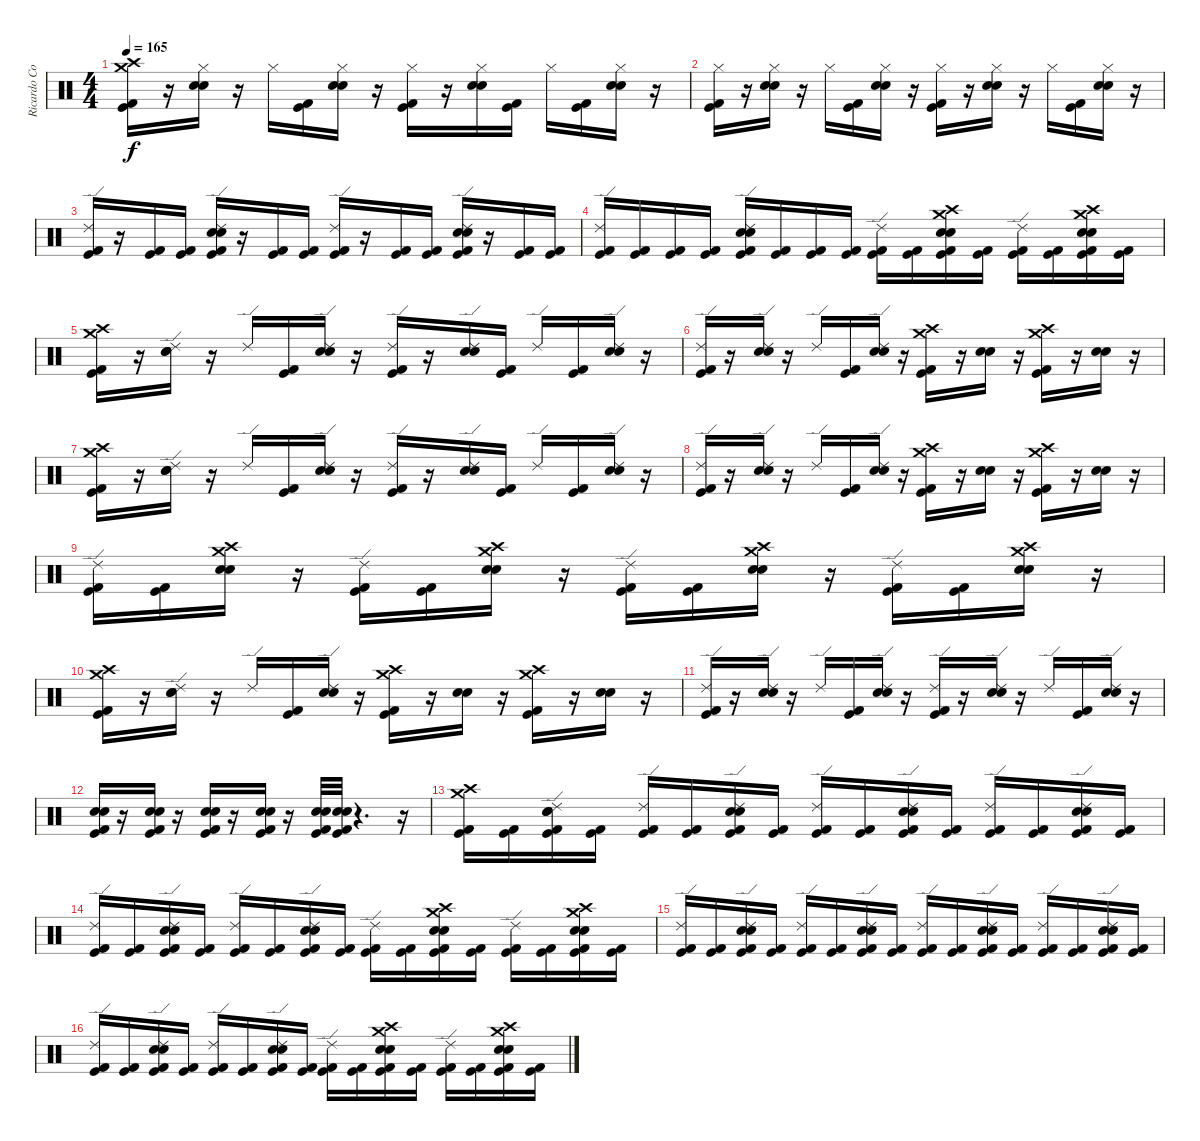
\track ("Ricardo Confessori" "Ricardo Co") {instrument percussion}
\staff {score}
\articulation defaults
\ts (4 4)
\tempo 165
\clef neutral
\ks c
("Crash medium (hit)" "Crash high (hit)" "Kick (hit) 2" "Kick (hit)").16{dy f} r.16 ("Hi-Hat (closed)" "Electric Snare (hit)" "Snare (hit) 2").16 r.16 "Hi-Hat (closed)".16 ("Kick (hit) 2" "Kick (hit)").16 ("Electric Snare (hit)" "Hi-Hat (closed)" "Snare (hit) 2").16 r.16 ("Hi-Hat (closed)" "Kick (hit) 2" "Kick (hit)").16 r.16 ("Hi-Hat (closed)" "Electric Snare (hit)" "Snare (hit) 2").16 ("Kick (hit) 2" "Kick (hit)").16 "Hi-Hat (closed)".16 ("Kick (hit) 2" "Kick (hit)").16 ("Hi-Hat (closed)" "Electric Snare (hit)" "Snare (hit) 2").16 r.16 |
("Hi-Hat (closed)" "Kick (hit) 2" "Kick (hit)").16 r.16 ("Hi-Hat (closed)" "Electric Snare (hit)" "Snare (hit) 2").16 r.16 "Hi-Hat (closed)".16 ("Kick (hit) 2" "Kick (hit)").16 ("Electric Snare (hit)" "Hi-Hat (closed)" "Snare (hit) 2").16 r.16 ("Hi-Hat (closed)" "Kick (hit) 2" "Kick (hit)").16 r.16 ("Hi-Hat (closed)" "Electric Snare (hit)" "Snare (hit) 2").16 r.16 "Hi-Hat (closed)".16 ("Kick (hit) 2" "Kick (hit)").16 ("Hi-Hat (closed)" "Electric Snare (hit)" "Snare (hit) 2").16 r.16 |
("Ride (edge) 2" "Kick (hit) 2" "Kick (hit)").16 r.16 ("Kick (hit) 2" "Kick (hit)").16 ("Kick (hit) 2" "Kick (hit)").16 ("Electric Snare (hit)" "Snare (hit) 2" "Ride (edge) 2" "Kick (hit) 2" "Kick (hit)").16 r.16 ("Kick (hit) 2" "Kick (hit)").16 ("Kick (hit) 2" "Kick (hit)").16 ("Ride (edge) 2" "Kick (hit) 2" "Kick (hit)").16 r.16 ("Kick (hit) 2" "Kick (hit)").16 ("Kick (hit) 2" "Kick (hit)").16 ("Electric Snare (hit)" "Snare (hit) 2" "Ride (edge) 2" "Kick (hit) 2" "Kick (hit)").16 r.16 ("Kick (hit) 2" "Kick (hit)").16 ("Kick (hit) 2" "Kick (hit)").16 |
("Ride (edge) 2" "Kick (hit) 2" "Kick (hit)").16 ("Kick (hit) 2" "Kick (hit)").16 ("Kick (hit) 2" "Kick (hit)").16 ("Kick (hit) 2" "Kick (hit)").16 ("Electric Snare (hit)" "Snare (hit) 2" "Ride (edge) 2" "Kick (hit) 2" "Kick (hit)").16 ("Kick (hit) 2" "Kick (hit)").16 ("Kick (hit) 2" "Kick (hit)").16 ("Kick (hit) 2" "Kick (hit)").16 ("Ride (edge) 2" "Kick (hit) 2" "Kick (hit)").16 ("Kick (hit) 2" "Kick (hit)").16 ("Crash high (hit)" "Electric Snare (hit)" "Snare (hit) 2" "Crash medium (hit)" "Kick (hit) 2" "Kick (hit)").16 ("Kick (hit) 2" "Kick (hit)").16 ("Ride (edge) 2" "Kick (hit) 2" "Kick (hit)").16 ("Kick (hit) 2" "Kick (hit)").16 ("Electric Snare (hit)" "Snare (hit) 2" "Crash high (hit)" "Crash medium (hit)" "Kick (hit) 2" "Kick (hit)").16 ("Kick (hit) 2" "Kick (hit)").16 |
("Crash high (hit)" "Crash medium (hit)" "Kick (hit) 2" "Kick (hit)").16 r.16 ("Ride (edge) 2" "Electric Snare (hit)" "Snare (hit) 2").16 r.16 "Ride (edge) 2".16 ("Kick (hit) 2" "Kick (hit)").16 ("Ride (edge) 2" "Electric Snare (hit)" "Snare (hit) 2").16 r.16 ("Ride (edge) 2" "Kick (hit) 2" "Kick (hit)").16 r.16 ("Ride (edge) 2" "Electric Snare (hit)" "Snare (hit) 2").16 ("Kick (hit) 2" "Kick (hit)").16 "Ride (edge) 2".16 ("Kick (hit) 2" "Kick (hit)").16 ("Ride (edge) 2" "Electric Snare (hit)" "Snare (hit) 2").16 r.16 |
("Ride (edge) 2" "Kick (hit) 2" "Kick (hit)").16 r.16 ("Ride (edge) 2" "Electric Snare (hit)" "Snare (hit) 2").16 r.16 "Ride (edge) 2".16 ("Kick (hit) 2" "Kick (hit)").16 ("Ride (edge) 2" "Electric Snare (hit)" "Snare (hit) 2").16 r.16 ("Crash high (hit)" "Crash medium (hit)" "Kick (hit) 2" "Kick (hit)").16 r.16 ("Electric Snare (hit)" "Snare (hit) 2").16 r.16 ("Crash high (hit)" "Crash medium (hit)" "Kick (hit)" "Kick (hit) 2").16 r.16 ("Snare (hit) 2" "Electric Snare (hit)").16 r.16 |
("Crash medium (hit)" "Crash high (hit)" "Kick (hit) 2" "Kick (hit)").16 r.16 ("Ride (edge) 2" "Electric Snare (hit)" "Snare (hit) 2").16 r.16 "Ride (edge) 2".16 ("Kick (hit) 2" "Kick (hit)").16 ("Ride (edge) 2" "Electric Snare (hit)" "Snare (hit) 2").16 r.16 ("Ride (edge) 2" "Kick (hit) 2" "Kick (hit)").16 r.16 ("Ride (edge) 2" "Electric Snare (hit)" "Snare (hit) 2").16 ("Kick (hit) 2" "Kick (hit)").16 "Ride (edge) 2".16 ("Kick (hit) 2" "Kick (hit)").16 ("Ride (edge) 2" "Electric Snare (hit)" "Snare (hit) 2").16 r.16 |
("Ride (edge) 2" "Kick (hit) 2" "Kick (hit)").16 r.16 ("Ride (edge) 2" "Electric Snare (hit)" "Snare (hit) 2").16 r.16 "Ride (edge) 2".16 ("Kick (hit) 2" "Kick (hit)").16 ("Ride (edge) 2" "Electric Snare (hit)" "Snare (hit) 2").16 r.16 ("Crash high (hit)" "Crash medium (hit)" "Kick (hit) 2" "Kick (hit)").16 r.16 ("Electric Snare (hit)" "Snare (hit) 2").16 r.16 ("Crash high (hit)" "Crash medium (hit)" "Kick (hit)" "Kick (hit) 2").16 r.16 ("Electric Snare (hit)" "Snare (hit) 2").16 r.16 |
("Ride (edge) 2" "Kick (hit) 2" "Kick (hit)").16 ("Kick (hit) 2" "Kick (hit)").16 ("Crash high (hit)" "Crash medium (hit)" "Electric Snare (hit)" "Snare (hit) 2").16 r.16 ("Ride (edge) 2" "Kick (hit) 2" "Kick (hit)").16 ("Kick (hit) 2" "Kick (hit)").16 ("Crash high (hit)" "Crash medium (hit)" "Electric Snare (hit)" "Snare (hit) 2").16 r.16 ("Ride (edge) 2" "Kick (hit) 2" "Kick (hit)").16 ("Kick (hit) 2" "Kick (hit)").16 ("Crash high (hit)" "Crash medium (hit)" "Electric Snare (hit)" "Snare (hit) 2").16 r.16 ("Ride (edge) 2" "Kick (hit) 2" "Kick (hit)").16 ("Kick (hit) 2" "Kick (hit)").16 ("Crash medium (hit)" "Crash high (hit)" "Electric Snare (hit)" "Snare (hit) 2").16 r.16 |
("Crash medium (hit)" "Crash high (hit)" "Kick (hit) 2" "Kick (hit)").16 r.16 ("Ride (edge) 2" "Electric Snare (hit)" "Snare (hit) 2").16 r.16 "Ride (edge) 2".16 ("Kick (hit) 2" "Kick (hit)").16 ("Ride (edge) 2" "Electric Snare (hit)" "Snare (hit) 2").16 r.16 ("Crash high (hit)" "Crash medium (hit)" "Kick (hit) 2" "Kick (hit)").16 r.16 ("Electric Snare (hit)" "Snare (hit) 2").16 r.16 ("Crash high (hit)" "Crash medium (hit)" "Kick (hit) 2" "Kick (hit)").16 r.16 ("Electric Snare (hit)" "Snare (hit) 2").16 r.16 |
("Ride (edge) 2" "Kick (hit) 2" "Kick (hit)").16 r.16 ("Ride (edge) 2" "Electric Snare (hit)" "Snare (hit) 2").16 r.16 "Ride (edge) 2".16 ("Kick (hit)" "Kick (hit) 2").16 ("Ride (edge) 2" "Electric Snare (hit)" "Snare (hit) 2").16 r.16 ("Ride (edge) 2" "Kick (hit) 2" "Kick (hit)").16 r.16 ("Ride (edge) 2" "Electric Snare (hit)" "Snare (hit) 2").16 r.16 "Ride (edge) 2".16 ("Kick (hit)" "Kick (hit) 2").16 ("Ride (edge) 2" "Electric Snare (hit)" "Snare (hit) 2").16 r.16 |
("Electric Snare (hit)" "Snare (hit) 2" "Kick (hit) 2" "Kick (hit)").16 r.16 ("Electric Snare (hit)" "Snare (hit) 2" "Kick (hit) 2" "Kick (hit)").16 r.16 ("Electric Snare (hit)" "Snare (hit) 2" "Kick (hit) 2" "Kick (hit)").16 r.16 ("Electric Snare (hit)" "Snare (hit) 2" "Kick (hit) 2" "Kick (hit)").16 r.16 ("Kick (hit) 2" "Kick (hit)" "Electric Snare (hit)" "Snare (hit) 2").32 ("Kick (hit) 2" "Kick (hit)" "Electric Snare (hit)" "Snare (hit) 2").32 r.4{d} r.16 |
("Crash high (hit)" "Crash medium (hit)" "Kick (hit) 2" "Kick (hit)").16 ("Kick (hit) 2" "Kick (hit)").16 ("Ride (edge) 2" "Electric Snare (hit)" "Snare (hit) 2" "Kick (hit) 2" "Kick (hit)").16 ("Kick (hit) 2" "Kick (hit)").16 ("Ride (edge) 2" "Kick (hit) 2" "Kick (hit)").16 ("Kick (hit) 2" "Kick (hit)").16 ("Ride (edge) 2" "Electric Snare (hit)" "Snare (hit) 2" "Kick (hit) 2" "Kick (hit)").16 ("Kick (hit) 2" "Kick (hit)").16 ("Ride (edge) 2" "Kick (hit) 2" "Kick (hit)").16 ("Kick (hit) 2" "Kick (hit)").16 ("Ride (edge) 2" "Electric Snare (hit)" "Snare (hit) 2" "Kick (hit) 2" "Kick (hit)").16 ("Kick (hit) 2" "Kick (hit)").16 ("Ride (edge) 2" "Kick (hit) 2" "Kick (hit)").16 ("Kick (hit) 2" "Kick (hit)").16 ("Ride (edge) 2" "Electric Snare (hit)" "Snare (hit) 2" "Kick (hit) 2" "Kick (hit)").16 ("Kick (hit) 2" "Kick (hit)").16 |
("Ride (edge) 2" "Kick (hit) 2" "Kick (hit)").16 ("Kick (hit) 2" "Kick (hit)").16 ("Ride (edge) 2" "Electric Snare (hit)" "Snare (hit) 2" "Kick (hit) 2" "Kick (hit)").16 ("Kick (hit) 2" "Kick (hit)").16 ("Ride (edge) 2" "Kick (hit) 2" "Kick (hit)").16 ("Kick (hit) 2" "Kick (hit)").16 ("Ride (edge) 2" "Electric Snare (hit)" "Snare (hit) 2" "Kick (hit) 2" "Kick (hit)").16 ("Kick (hit) 2" "Kick (hit)").16 ("Ride (edge) 2" "Kick (hit) 2" "Kick (hit)").16 ("Kick (hit) 2" "Kick (hit)").16 ("Crash high (hit)" "Crash medium (hit)" "Electric Snare (hit)" "Snare (hit) 2" "Kick (hit) 2" "Kick (hit)").16 ("Kick (hit) 2" "Kick (hit)").16 ("Ride (edge) 2" "Kick (hit) 2" "Kick (hit)").16 ("Kick (hit) 2" "Kick (hit)").16 ("Crash high (hit)" "Crash medium (hit)" "Electric Snare (hit)" "Snare (hit) 2" "Kick (hit) 2" "Kick (hit)").16 ("Kick (hit) 2" "Kick (hit)").16 |
("Ride (edge) 2" "Kick (hit) 2" "Kick (hit)").16 ("Kick (hit) 2" "Kick (hit)").16 ("Ride (edge) 2" "Electric Snare (hit)" "Snare (hit) 2" "Kick (hit) 2" "Kick (hit)").16 ("Kick (hit) 2" "Kick (hit)").16 ("Ride (edge) 2" "Kick (hit) 2" "Kick (hit)").16 ("Kick (hit) 2" "Kick (hit)").16 ("Ride (edge) 2" "Electric Snare (hit)" "Snare (hit) 2" "Kick (hit) 2" "Kick (hit)").16 ("Kick (hit) 2" "Kick (hit)").16 ("Ride (edge) 2" "Kick (hit) 2" "Kick (hit)").16 ("Kick (hit) 2" "Kick (hit)").16 ("Ride (edge) 2" "Electric Snare (hit)" "Snare (hit) 2" "Kick (hit) 2" "Kick (hit)").16 ("Kick (hit) 2" "Kick (hit)").16 ("Ride (edge) 2" "Kick (hit) 2" "Kick (hit)").16 ("Kick (hit) 2" "Kick (hit)").16 ("Ride (edge) 2" "Electric Snare (hit)" "Snare (hit) 2" "Kick (hit) 2" "Kick (hit)").16 ("Kick (hit) 2" "Kick (hit)").16 |
("Ride (edge) 2" "Kick (hit) 2" "Kick (hit)").16 ("Kick (hit) 2" "Kick (hit)").16 ("Ride (edge) 2" "Electric Snare (hit)" "Snare (hit) 2" "Kick (hit) 2" "Kick (hit)").16 ("Kick (hit) 2" "Kick (hit)").16 ("Ride (edge) 2" "Kick (hit) 2" "Kick (hit)").16 ("Kick (hit) 2" "Kick (hit)").16 ("Ride (edge) 2" "Electric Snare (hit)" "Snare (hit) 2" "Kick (hit) 2" "Kick (hit)").16 ("Kick (hit) 2" "Kick (hit)").16 ("Ride (edge) 2" "Kick (hit) 2" "Kick (hit)").16 ("Kick (hit) 2" "Kick (hit)").16 ("Crash high (hit)" "Crash medium (hit)" "Electric Snare (hit)" "Snare (hit) 2" "Kick (hit) 2" "Kick (hit)").16 ("Kick (hit) 2" "Kick (hit)").16 ("Ride (edge) 2" "Kick (hit) 2" "Kick (hit)").16 ("Kick (hit) 2" "Kick (hit)").16 ("Crash high (hit)" "Crash medium (hit)" "Electric Snare (hit)" "Snare (hit) 2" "Kick (hit) 2" "Kick (hit)").16 ("Kick (hit) 2" "Kick (hit)").16
